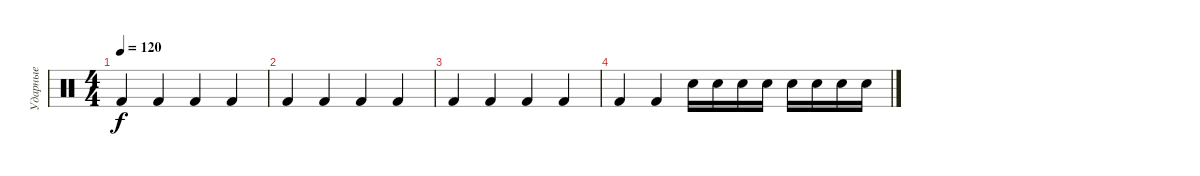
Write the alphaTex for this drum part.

\track ("Ударные" "Ударные") {instrument percussion}
\staff {score}
\articulation defaults
\ts (4 4)
\tempo 120
\clef neutral
\ks c "Kick (hit) 2".4{dy f} "Kick (hit) 2".4 "Kick (hit) 2".4 "Kick (hit) 2".4
|
"Kick (hit) 2".4 "Kick (hit) 2".4 "Kick (hit) 2".4 "Kick (hit) 2".4 |
"Kick (hit) 2".4 "Kick (hit) 2".4 "Kick (hit) 2".4 "Kick (hit) 2".4 |
"Kick (hit) 2".4 "Kick (hit) 2".4 "Snare (hit) 2".16 "Snare (hit) 2".16 "Snare (hit) 2".16 "Snare (hit) 2".16 "Snare (hit) 2".16 "Snare (hit) 2".16 "Snare (hit) 2".16 "Snare (hit) 2".16
